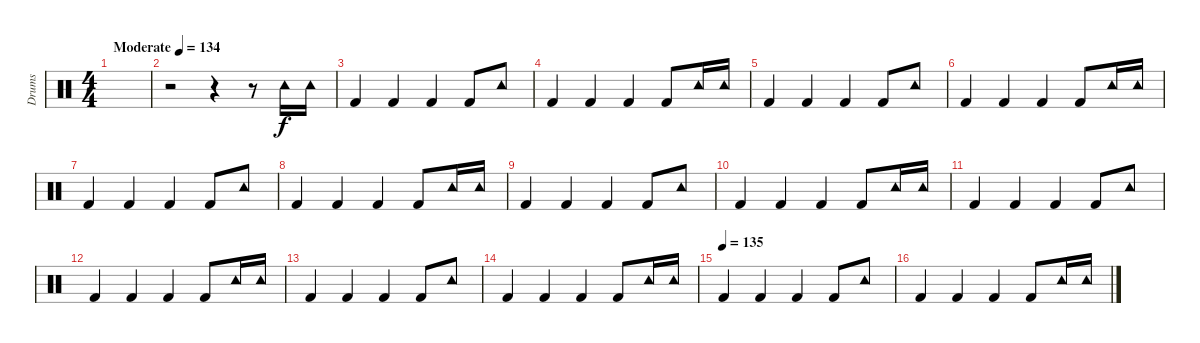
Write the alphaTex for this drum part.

\track ("Drums" "Drums") {instrument percussion}
\staff {score}
\articulation defaults
\ts (4 4)
\tempo (134 "Moderate")
\clef neutral
\ks c
|
r.2 r.4 r.8 "Tambourine (hit)".16 "Tambourine (hit)".16 |
"Kick (hit) 2".4 "Kick (hit) 2".4 "Kick (hit) 2".4 "Kick (hit) 2".8 "Tambourine (hit)".8 |
"Kick (hit) 2".4 "Kick (hit) 2".4 "Kick (hit) 2".4 "Kick (hit) 2".8 "Tambourine (hit)".16 "Tambourine (hit)".16 |
"Kick (hit) 2".4 "Kick (hit) 2".4 "Kick (hit) 2".4 "Kick (hit) 2".8 "Tambourine (hit)".8 |
"Kick (hit) 2".4 "Kick (hit) 2".4 "Kick (hit) 2".4 "Kick (hit) 2".8 "Tambourine (hit)".16 "Tambourine (hit)".16 |
"Kick (hit) 2".4 "Kick (hit) 2".4 "Kick (hit) 2".4 "Kick (hit) 2".8 "Tambourine (hit)".8 |
"Kick (hit) 2".4 "Kick (hit) 2".4 "Kick (hit) 2".4 "Kick (hit) 2".8 "Tambourine (hit)".16 "Tambourine (hit)".16 |
"Kick (hit) 2".4 "Kick (hit) 2".4 "Kick (hit) 2".4 "Kick (hit) 2".8 "Tambourine (hit)".8 |
"Kick (hit) 2".4 "Kick (hit) 2".4 "Kick (hit) 2".4 "Kick (hit) 2".8 "Tambourine (hit)".16 "Tambourine (hit)".16 |
"Kick (hit) 2".4 "Kick (hit) 2".4 "Kick (hit) 2".4 "Kick (hit) 2".8 "Tambourine (hit)".8 |
"Kick (hit) 2".4 "Kick (hit) 2".4 "Kick (hit) 2".4 "Kick (hit) 2".8 "Tambourine (hit)".16 "Tambourine (hit)".16 |
"Kick (hit) 2".4 "Kick (hit) 2".4 "Kick (hit) 2".4 "Kick (hit) 2".8 "Tambourine (hit)".8 |
"Kick (hit) 2".4 "Kick (hit) 2".4 "Kick (hit) 2".4 "Kick (hit) 2".8 "Tambourine (hit)".16 "Tambourine (hit)".16 |
\tempo (135)
"Kick (hit) 2".4 "Kick (hit) 2".4 "Kick (hit) 2".4 "Kick (hit) 2".8 "Tambourine (hit)".8 |
"Kick (hit) 2".4 "Kick (hit) 2".4 "Kick (hit) 2".4 "Kick (hit) 2".8 "Tambourine (hit)".16 "Tambourine (hit)".16
